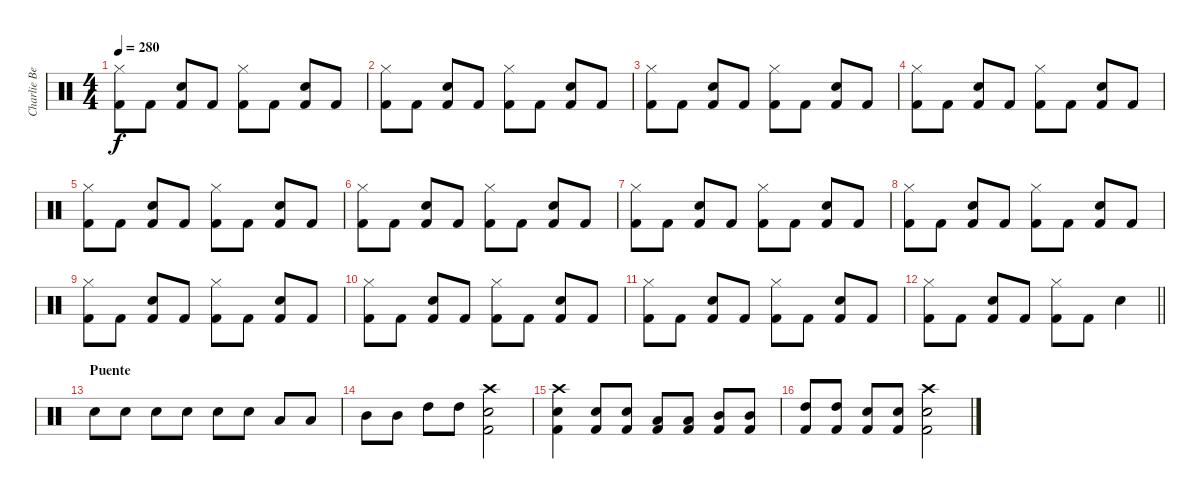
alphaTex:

\track ("Charlie Benante" "Charlie Be") {instrument percussion}
\staff {score}
\articulation defaults
\ts (4 4)
\tempo 280
\clef neutral
\ks c
("Hi-Hat (closed)" "Kick (hit) 2").8{dy f} "Kick (hit) 2".8 ("Snare (hit) 2" "Kick (hit) 2").8 "Kick (hit) 2".8 ("Hi-Hat (closed)" "Kick (hit) 2").8 "Kick (hit) 2".8 ("Snare (hit) 2" "Kick (hit) 2").8 "Kick (hit) 2".8 |
("Hi-Hat (closed)" "Kick (hit) 2").8 "Kick (hit) 2".8 ("Snare (hit) 2" "Kick (hit) 2").8 "Kick (hit) 2".8 ("Hi-Hat (closed)" "Kick (hit) 2").8 "Kick (hit) 2".8 ("Snare (hit) 2" "Kick (hit) 2").8 "Kick (hit) 2".8 |
("Hi-Hat (closed)" "Kick (hit) 2").8 "Kick (hit) 2".8 ("Snare (hit) 2" "Kick (hit) 2").8 "Kick (hit) 2".8 ("Hi-Hat (closed)" "Kick (hit) 2").8 "Kick (hit) 2".8 ("Snare (hit) 2" "Kick (hit) 2").8 "Kick (hit) 2".8 |
("Hi-Hat (closed)" "Kick (hit) 2").8 "Kick (hit) 2".8 ("Snare (hit) 2" "Kick (hit) 2").8 "Kick (hit) 2".8 ("Hi-Hat (closed)" "Kick (hit) 2").8 "Kick (hit) 2".8 ("Snare (hit) 2" "Kick (hit) 2").8 "Kick (hit) 2".8 |
("Hi-Hat (closed)" "Kick (hit) 2").8 "Kick (hit) 2".8 ("Snare (hit) 2" "Kick (hit) 2").8 "Kick (hit) 2".8 ("Hi-Hat (closed)" "Kick (hit) 2").8 "Kick (hit) 2".8 ("Snare (hit) 2" "Kick (hit) 2").8 "Kick (hit) 2".8 |
("Hi-Hat (closed)" "Kick (hit) 2").8 "Kick (hit) 2".8 ("Snare (hit) 2" "Kick (hit) 2").8 "Kick (hit) 2".8 ("Hi-Hat (closed)" "Kick (hit) 2").8 "Kick (hit) 2".8 ("Snare (hit) 2" "Kick (hit) 2").8 "Kick (hit) 2".8 |
("Hi-Hat (closed)" "Kick (hit) 2").8 "Kick (hit) 2".8 ("Snare (hit) 2" "Kick (hit) 2").8 "Kick (hit) 2".8 ("Hi-Hat (closed)" "Kick (hit) 2").8 "Kick (hit) 2".8 ("Snare (hit) 2" "Kick (hit) 2").8 "Kick (hit) 2".8 |
("Hi-Hat (closed)" "Kick (hit) 2").8 "Kick (hit) 2".8 ("Snare (hit) 2" "Kick (hit) 2").8 "Kick (hit) 2".8 ("Hi-Hat (closed)" "Kick (hit) 2").8 "Kick (hit) 2".8 ("Snare (hit) 2" "Kick (hit) 2").8 "Kick (hit) 2".8 |
("Hi-Hat (closed)" "Kick (hit) 2").8 "Kick (hit) 2".8 ("Snare (hit) 2" "Kick (hit) 2").8 "Kick (hit) 2".8 ("Hi-Hat (closed)" "Kick (hit) 2").8 "Kick (hit) 2".8 ("Snare (hit) 2" "Kick (hit) 2").8 "Kick (hit) 2".8 |
("Hi-Hat (closed)" "Kick (hit) 2").8 "Kick (hit) 2".8 ("Snare (hit) 2" "Kick (hit) 2").8 "Kick (hit) 2".8 ("Hi-Hat (closed)" "Kick (hit) 2").8 "Kick (hit) 2".8 ("Snare (hit) 2" "Kick (hit) 2").8 "Kick (hit) 2".8 |
("Hi-Hat (closed)" "Kick (hit) 2").8 "Kick (hit) 2".8 ("Snare (hit) 2" "Kick (hit) 2").8 "Kick (hit) 2".8 ("Hi-Hat (closed)" "Kick (hit) 2").8 "Kick (hit) 2".8 ("Snare (hit) 2" "Kick (hit) 2").8 "Kick (hit) 2".8 |
\barLineRight lightlight
("Hi-Hat (closed)" "Kick (hit) 2").8 "Kick (hit) 2".8 ("Snare (hit) 2" "Kick (hit) 2").8 "Kick (hit) 2".8 ("Hi-Hat (closed)" "Kick (hit) 2").8 "Kick (hit) 2".8 "Snare (hit) 2".4 |
\section ("" "Puente")
"Snare (hit) 2".8 "Snare (hit) 2".8 "Snare (hit) 2".8 "Snare (hit) 2".8 "Snare (hit) 2".8 "Snare (hit) 2".8 "Low Tom (hit)".8 "Low Tom (hit)".8 |
"Mid Tom (hit)".8 "Mid Tom (hit)".8 "High Tom (hit)".8 "High Tom (hit)".8 ("Crash high (hit)" "Snare (hit) 2" "Kick (hit) 2").2 |
("Crash high (hit)" "Snare (hit) 2" "Kick (hit) 2").4 ("Snare (hit) 2" "Kick (hit) 2").8 ("Snare (hit) 2" "Kick (hit) 2").8 ("Low Tom (hit)" "Kick (hit) 2").8 ("Low Tom (hit)" "Kick (hit) 2").8 ("Mid Tom (hit)" "Kick (hit) 2").8 ("Mid Tom (hit)" "Kick (hit) 2").8 |
("High Tom (hit)" "Kick (hit) 2").8 ("High Tom (hit)" "Kick (hit) 2").8 ("Snare (hit) 2" "Kick (hit) 2").8 ("Snare (hit) 2" "Kick (hit) 2").8 ("Crash high (hit)" "Snare (hit) 2" "Kick (hit) 2").2
